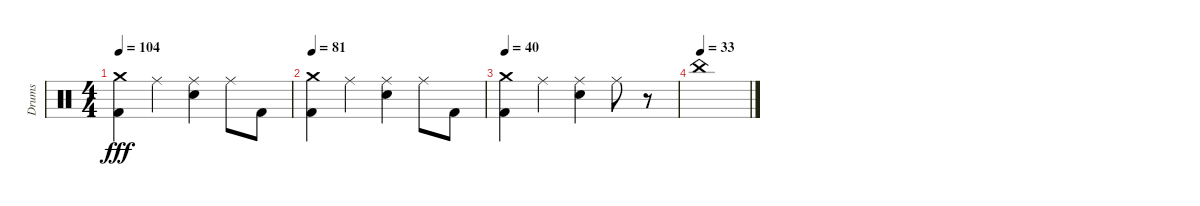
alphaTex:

\track ("Drums" "Drums") {instrument percussion}
\staff {score}
\articulation defaults
\ts (4 4)
\tempo 104
\clef neutral
\ks c
("Crash medium (hit)" "Kick (hit) 2").4{dy fff} "Ride (middle)".4 ("Ride (middle)" "Snare (hit) 2").4 "Ride (middle)".8 "Kick (hit) 2".8 |
\tempo 81
("Crash medium (hit)" "Kick (hit) 2").4 "Ride (middle)".4 ("Ride (middle)" "Snare (hit) 2").4 "Ride (middle)".8 "Kick (hit) 2".8 |
\tempo 40
("Crash medium (hit)" "Kick (hit) 2").4 "Ride (middle)".4 ("Ride (middle)" "Snare (hit) 2").4 "Ride (middle)".8 r.8 |
\tempo (33)
"China (hit)".1
